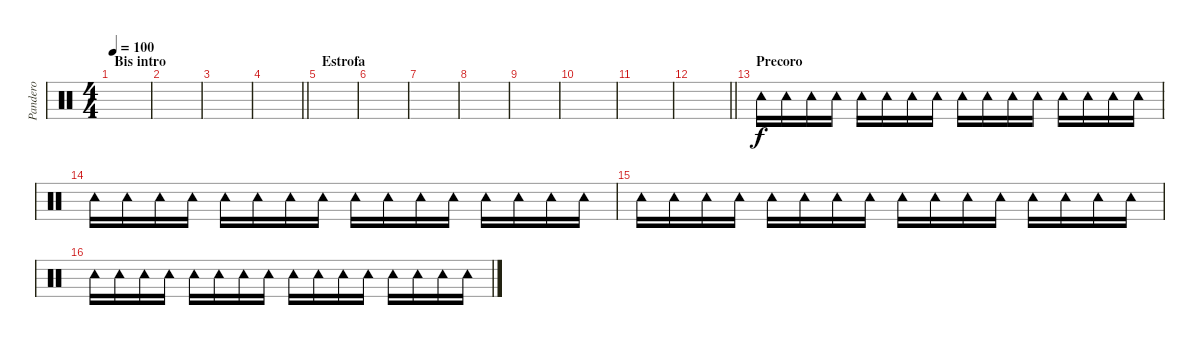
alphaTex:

\track ("Pandero" "Pandero") {instrument percussion}
\staff {score}
\articulation defaults
\ts (4 4)
\section ("" "Bis intro")
\tempo 100
\clef neutral
\ks c
|
|
|
\barLineRight lightlight
|
\section ("" "Estrofa")
|
|
|
|
|
|
|
\barLineRight lightlight
|
\section ("" "Precoro")
"Tambourine (hit)".16 "Tambourine (hit)".16 "Tambourine (hit)".16 "Tambourine (hit)".16 "Tambourine (hit)".16 "Tambourine (hit)".16 "Tambourine (hit)".16 "Tambourine (hit)".16 "Tambourine (hit)".16 "Tambourine (hit)".16 "Tambourine (hit)".16 "Tambourine (hit)".16 "Tambourine (hit)".16 "Tambourine (hit)".16 "Tambourine (hit)".16 "Tambourine (hit)".16 |
"Tambourine (hit)".16 "Tambourine (hit)".16 "Tambourine (hit)".16 "Tambourine (hit)".16 "Tambourine (hit)".16 "Tambourine (hit)".16 "Tambourine (hit)".16 "Tambourine (hit)".16 "Tambourine (hit)".16 "Tambourine (hit)".16 "Tambourine (hit)".16 "Tambourine (hit)".16 "Tambourine (hit)".16 "Tambourine (hit)".16 "Tambourine (hit)".16 "Tambourine (hit)".16 |
"Tambourine (hit)".16 "Tambourine (hit)".16 "Tambourine (hit)".16 "Tambourine (hit)".16 "Tambourine (hit)".16 "Tambourine (hit)".16 "Tambourine (hit)".16 "Tambourine (hit)".16 "Tambourine (hit)".16 "Tambourine (hit)".16 "Tambourine (hit)".16 "Tambourine (hit)".16 "Tambourine (hit)".16 "Tambourine (hit)".16 "Tambourine (hit)".16 "Tambourine (hit)".16 |
"Tambourine (hit)".16 "Tambourine (hit)".16 "Tambourine (hit)".16 "Tambourine (hit)".16 "Tambourine (hit)".16 "Tambourine (hit)".16 "Tambourine (hit)".16 "Tambourine (hit)".16 "Tambourine (hit)".16 "Tambourine (hit)".16 "Tambourine (hit)".16 "Tambourine (hit)".16 "Tambourine (hit)".16 "Tambourine (hit)".16 "Tambourine (hit)".16 "Tambourine (hit)".16
